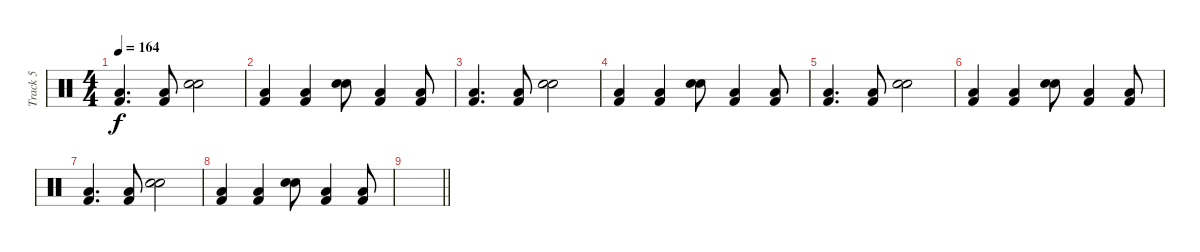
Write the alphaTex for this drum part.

\track ("Track 5" "Track 5") {instrument percussion}
\staff {score}
\articulation defaults
\ts (4 4)
\tempo 164
\clef neutral
\ks c
("Low Floor Tom (hit)" "Kick (hit) 2").4{d dy f} ("Low Floor Tom (hit)" "Kick (hit) 2").8 ("Hand Clap (hit)" "Electric Snare (hit)").2 |
("Low Floor Tom (hit)" "Kick (hit) 2").4 ("Low Floor Tom (hit)" "Kick (hit) 2").4 ("Hand Clap (hit)" "Electric Snare (hit)").8 ("Low Floor Tom (hit)" "Kick (hit) 2").4 ("Low Floor Tom (hit)" "Kick (hit) 2").8 |
("Low Floor Tom (hit)" "Kick (hit) 2").4{d} ("Low Floor Tom (hit)" "Kick (hit) 2").8 ("Hand Clap (hit)" "Electric Snare (hit)").2 |
("Low Floor Tom (hit)" "Kick (hit) 2").4 ("Low Floor Tom (hit)" "Kick (hit) 2").4 ("Hand Clap (hit)" "Electric Snare (hit)").8 ("Low Floor Tom (hit)" "Kick (hit) 2").4 ("Low Floor Tom (hit)" "Kick (hit) 2").8 |
("Low Floor Tom (hit)" "Kick (hit) 2").4{d} ("Low Floor Tom (hit)" "Kick (hit) 2").8 ("Hand Clap (hit)" "Electric Snare (hit)").2 |
("Low Floor Tom (hit)" "Kick (hit) 2").4 ("Low Floor Tom (hit)" "Kick (hit) 2").4 ("Hand Clap (hit)" "Electric Snare (hit)").8 ("Low Floor Tom (hit)" "Kick (hit) 2").4 ("Low Floor Tom (hit)" "Kick (hit) 2").8 |
("Low Floor Tom (hit)" "Kick (hit) 2").4{d} ("Low Floor Tom (hit)" "Kick (hit) 2").8 ("Hand Clap (hit)" "Electric Snare (hit)").2 |
("Low Floor Tom (hit)" "Kick (hit) 2").4 ("Low Floor Tom (hit)" "Kick (hit) 2").4 ("Hand Clap (hit)" "Electric Snare (hit)").8 ("Low Floor Tom (hit)" "Kick (hit) 2").4 ("Low Floor Tom (hit)" "Kick (hit) 2").8 |
\barLineRight lightlight
